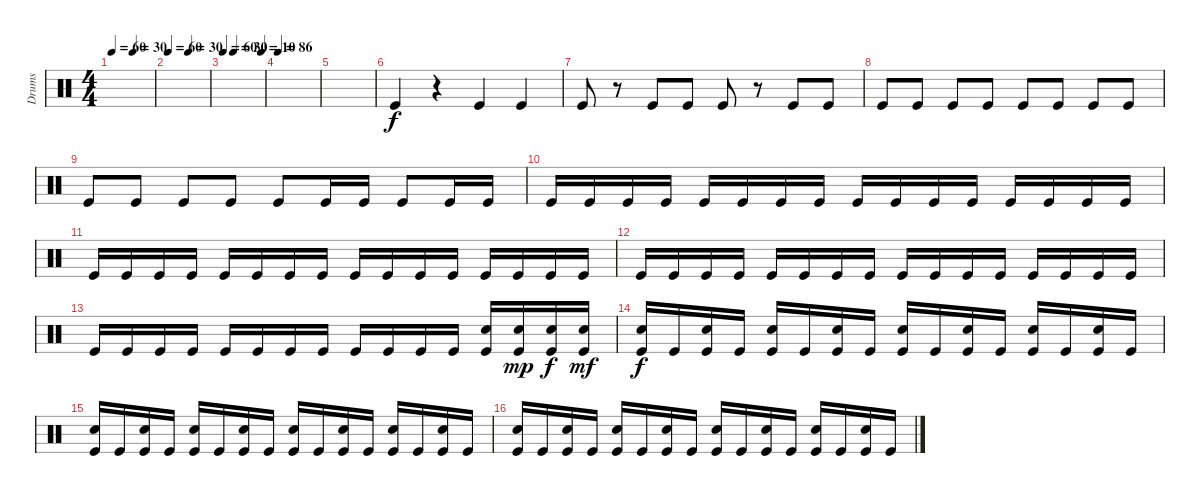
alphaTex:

\track ("Drums" "Drums") {instrument percussion}
\staff {score}
\articulation defaults
\ts (4 4)
\tempo 60
\tempo (30 0.5)
\clef neutral
\ks c
|
\tempo 60
\tempo (30 0.5)
|
\tempo 60
\tempo (30 0.25)
\tempo (10 0.9375)
|
\tempo 86
|
|
"Kick (hit)".4{dy f} r.4 "Kick (hit)".4 "Kick (hit)".4 |
"Kick (hit)".8 r.8 "Kick (hit)".8 "Kick (hit)".8 "Kick (hit)".8 r.8 "Kick (hit)".8 "Kick (hit)".8 |
"Kick (hit)".8 "Kick (hit)".8 "Kick (hit)".8 "Kick (hit)".8 "Kick (hit)".8 "Kick (hit)".8 "Kick (hit)".8 "Kick (hit)".8 |
"Kick (hit)".8 "Kick (hit)".8 "Kick (hit)".8 "Kick (hit)".8 "Kick (hit)".8 "Kick (hit)".16 "Kick (hit)".16 "Kick (hit)".8 "Kick (hit)".16 "Kick (hit)".16 |
"Kick (hit)".16 "Kick (hit)".16 "Kick (hit)".16 "Kick (hit)".16 "Kick (hit)".16 "Kick (hit)".16 "Kick (hit)".16 "Kick (hit)".16 "Kick (hit)".16 "Kick (hit)".16 "Kick (hit)".16 "Kick (hit)".16 "Kick (hit)".16 "Kick (hit)".16 "Kick (hit)".16 "Kick (hit)".16 |
"Kick (hit)".16 "Kick (hit)".16 "Kick (hit)".16 "Kick (hit)".16 "Kick (hit)".16 "Kick (hit)".16 "Kick (hit)".16 "Kick (hit)".16 "Kick (hit)".16 "Kick (hit)".16 "Kick (hit)".16 "Kick (hit)".16 "Kick (hit)".16 "Kick (hit)".16 "Kick (hit)".16 "Kick (hit)".16 |
"Kick (hit)".16 "Kick (hit)".16 "Kick (hit)".16 "Kick (hit)".16 "Kick (hit)".16 "Kick (hit)".16 "Kick (hit)".16 "Kick (hit)".16 "Kick (hit)".16 "Kick (hit)".16 "Kick (hit)".16 "Kick (hit)".16 "Kick (hit)".16 "Kick (hit)".16 "Kick (hit)".16 "Kick (hit)".16 |
"Kick (hit)".16 "Kick (hit)".16 "Kick (hit)".16 "Kick (hit)".16 "Kick (hit)".16 "Kick (hit)".16 "Kick (hit)".16 "Kick (hit)".16 "Kick (hit)".16 "Kick (hit)".16 "Kick (hit)".16 "Kick (hit)".16 ("Snare (hit) 2" "Kick (hit)").16 ("Snare (hit) 2" "Kick (hit)").16{dy mp} ("Snare (hit) 2" "Kick (hit)").16{dy f} ("Snare (hit) 2" "Kick (hit)").16{dy mf} |
("Snare (hit) 2" "Kick (hit)").16{dy f balance 3} "Kick (hit)".16 ("Snare (hit) 2" "Kick (hit)").16{balance 13} "Kick (hit)".16 ("Snare (hit) 2" "Kick (hit)").16{balance 3} "Kick (hit)".16 ("Snare (hit) 2" "Kick (hit)").16{balance 13} "Kick (hit)".16 ("Snare (hit) 2" "Kick (hit)").16{balance 3} "Kick (hit)".16 ("Snare (hit) 2" "Kick (hit)").16{balance 13} "Kick (hit)".16 ("Snare (hit) 2" "Kick (hit)").16{balance 3} "Kick (hit)".16 ("Snare (hit) 2" "Kick (hit)").16{balance 13} "Kick (hit)".16 |
("Snare (hit) 2" "Kick (hit)").16{balance 3} "Kick (hit)".16 ("Snare (hit) 2" "Kick (hit)").16{balance 13} "Kick (hit)".16 ("Snare (hit) 2" "Kick (hit)").16{balance 3} "Kick (hit)".16 ("Snare (hit) 2" "Kick (hit)").16{balance 13} "Kick (hit)".16 ("Snare (hit) 2" "Kick (hit)").16{balance 3} "Kick (hit)".16 ("Snare (hit) 2" "Kick (hit)").16{balance 13} "Kick (hit)".16 ("Snare (hit) 2" "Kick (hit)").16{balance 3} "Kick (hit)".16 ("Snare (hit) 2" "Kick (hit)").16{balance 13} "Kick (hit)".16 |
("Snare (hit) 2" "Kick (hit)").16{balance 3} "Kick (hit)".16 ("Snare (hit) 2" "Kick (hit)").16{balance 13} "Kick (hit)".16 ("Snare (hit) 2" "Kick (hit)").16{balance 3} "Kick (hit)".16 ("Snare (hit) 2" "Kick (hit)").16{balance 13} "Kick (hit)".16 ("Snare (hit) 2" "Kick (hit)").16{balance 3} "Kick (hit)".16 ("Snare (hit) 2" "Kick (hit)").16{balance 13} "Kick (hit)".16 ("Snare (hit) 2" "Kick (hit)").16{balance 3} "Kick (hit)".16 ("Snare (hit) 2" "Kick (hit)").16{balance 13} "Kick (hit)".16
